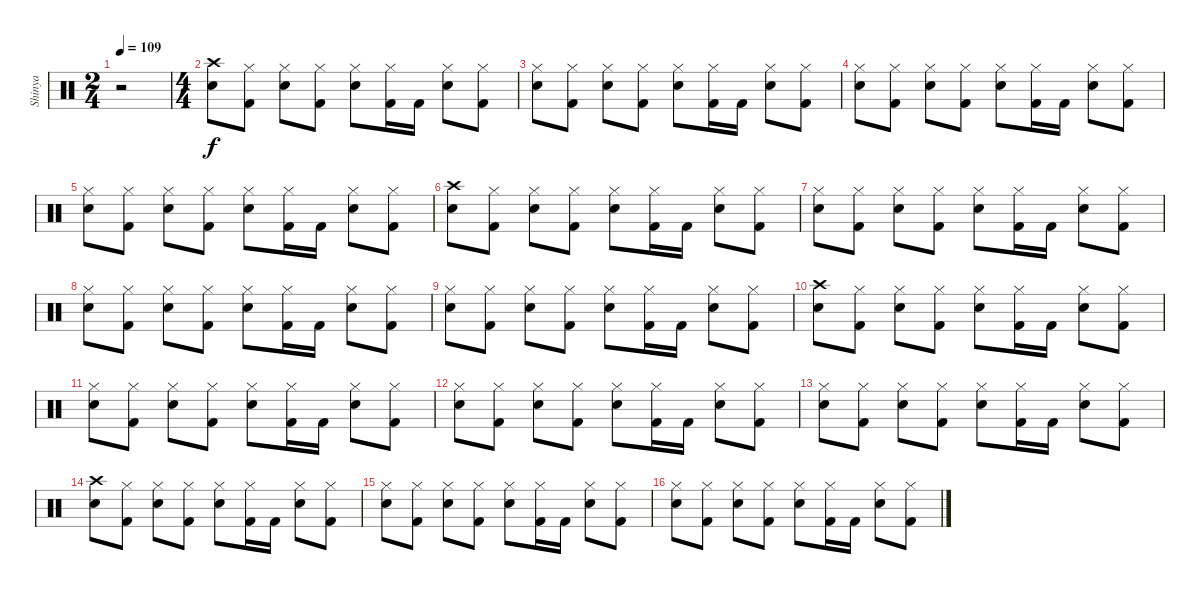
\track ("Shinya" "Shinya") {instrument percussion}
\staff {score}
\articulation defaults
\ts (2 4)
\tempo 109
\clef neutral
\ks c
r.2{dy f} |
\ts (4 4)
("Crash high (hit)" "Snare (hit) 2").8 ("Hi-Hat (closed)" "Kick (hit) 2").8 ("Hi-Hat (closed)" "Snare (hit) 2").8 ("Hi-Hat (closed)" "Kick (hit) 2").8 ("Hi-Hat (closed)" "Snare (hit) 2").8 ("Hi-Hat (closed)" "Kick (hit) 2").16 "Kick (hit) 2".16 ("Hi-Hat (closed)" "Snare (hit) 2").8 ("Hi-Hat (closed)" "Kick (hit) 2").8 |
("Hi-Hat (closed)" "Snare (hit) 2").8 ("Hi-Hat (closed)" "Kick (hit) 2").8 ("Hi-Hat (closed)" "Snare (hit) 2").8 ("Hi-Hat (closed)" "Kick (hit) 2").8 ("Hi-Hat (closed)" "Snare (hit) 2").8 ("Hi-Hat (closed)" "Kick (hit) 2").16 "Kick (hit) 2".16 ("Hi-Hat (closed)" "Snare (hit) 2").8 ("Hi-Hat (closed)" "Kick (hit) 2").8 |
("Hi-Hat (closed)" "Snare (hit) 2").8 ("Hi-Hat (closed)" "Kick (hit) 2").8 ("Hi-Hat (closed)" "Snare (hit) 2").8 ("Hi-Hat (closed)" "Kick (hit) 2").8 ("Hi-Hat (closed)" "Snare (hit) 2").8 ("Hi-Hat (closed)" "Kick (hit) 2").16 "Kick (hit) 2".16 ("Hi-Hat (closed)" "Snare (hit) 2").8 ("Hi-Hat (closed)" "Kick (hit) 2").8 |
("Hi-Hat (closed)" "Snare (hit) 2").8 ("Hi-Hat (closed)" "Kick (hit) 2").8 ("Hi-Hat (closed)" "Snare (hit) 2").8 ("Hi-Hat (closed)" "Kick (hit) 2").8 ("Hi-Hat (closed)" "Snare (hit) 2").8 ("Hi-Hat (closed)" "Kick (hit) 2").16 "Kick (hit) 2".16 ("Hi-Hat (closed)" "Snare (hit) 2").8 ("Hi-Hat (closed)" "Kick (hit) 2").8 |
("Crash high (hit)" "Snare (hit) 2").8 ("Hi-Hat (closed)" "Kick (hit) 2").8 ("Hi-Hat (closed)" "Snare (hit) 2").8 ("Hi-Hat (closed)" "Kick (hit) 2").8 ("Hi-Hat (closed)" "Snare (hit) 2").8 ("Hi-Hat (closed)" "Kick (hit) 2").16 "Kick (hit) 2".16 ("Hi-Hat (closed)" "Snare (hit) 2").8 ("Hi-Hat (closed)" "Kick (hit) 2").8 |
("Hi-Hat (closed)" "Snare (hit) 2").8 ("Hi-Hat (closed)" "Kick (hit) 2").8 ("Hi-Hat (closed)" "Snare (hit) 2").8 ("Hi-Hat (closed)" "Kick (hit) 2").8 ("Hi-Hat (closed)" "Snare (hit) 2").8 ("Hi-Hat (closed)" "Kick (hit) 2").16 "Kick (hit) 2".16 ("Hi-Hat (closed)" "Snare (hit) 2").8 ("Hi-Hat (closed)" "Kick (hit) 2").8 |
("Hi-Hat (closed)" "Snare (hit) 2").8 ("Hi-Hat (closed)" "Kick (hit) 2").8 ("Hi-Hat (closed)" "Snare (hit) 2").8 ("Hi-Hat (closed)" "Kick (hit) 2").8 ("Hi-Hat (closed)" "Snare (hit) 2").8 ("Hi-Hat (closed)" "Kick (hit) 2").16 "Kick (hit) 2".16 ("Hi-Hat (closed)" "Snare (hit) 2").8 ("Hi-Hat (closed)" "Kick (hit) 2").8 |
("Hi-Hat (closed)" "Snare (hit) 2").8 ("Hi-Hat (closed)" "Kick (hit) 2").8 ("Hi-Hat (closed)" "Snare (hit) 2").8 ("Hi-Hat (closed)" "Kick (hit) 2").8 ("Hi-Hat (closed)" "Snare (hit) 2").8 ("Hi-Hat (closed)" "Kick (hit) 2").16 "Kick (hit) 2".16 ("Hi-Hat (closed)" "Snare (hit) 2").8 ("Hi-Hat (closed)" "Kick (hit) 2").8 |
("Crash high (hit)" "Snare (hit) 2").8 ("Hi-Hat (closed)" "Kick (hit) 2").8 ("Hi-Hat (closed)" "Snare (hit) 2").8 ("Hi-Hat (closed)" "Kick (hit) 2").8 ("Hi-Hat (closed)" "Snare (hit) 2").8 ("Hi-Hat (closed)" "Kick (hit) 2").16 "Kick (hit) 2".16 ("Hi-Hat (closed)" "Snare (hit) 2").8 ("Hi-Hat (closed)" "Kick (hit) 2").8 |
("Hi-Hat (closed)" "Snare (hit) 2").8 ("Hi-Hat (closed)" "Kick (hit) 2").8 ("Hi-Hat (closed)" "Snare (hit) 2").8 ("Hi-Hat (closed)" "Kick (hit) 2").8 ("Hi-Hat (closed)" "Snare (hit) 2").8 ("Hi-Hat (closed)" "Kick (hit) 2").16 "Kick (hit) 2".16 ("Hi-Hat (closed)" "Snare (hit) 2").8 ("Hi-Hat (closed)" "Kick (hit) 2").8 |
("Hi-Hat (closed)" "Snare (hit) 2").8 ("Hi-Hat (closed)" "Kick (hit) 2").8 ("Hi-Hat (closed)" "Snare (hit) 2").8 ("Hi-Hat (closed)" "Kick (hit) 2").8 ("Hi-Hat (closed)" "Snare (hit) 2").8 ("Hi-Hat (closed)" "Kick (hit) 2").16 "Kick (hit) 2".16 ("Hi-Hat (closed)" "Snare (hit) 2").8 ("Hi-Hat (closed)" "Kick (hit) 2").8 |
("Hi-Hat (closed)" "Snare (hit) 2").8 ("Hi-Hat (closed)" "Kick (hit) 2").8 ("Hi-Hat (closed)" "Snare (hit) 2").8 ("Hi-Hat (closed)" "Kick (hit) 2").8 ("Hi-Hat (closed)" "Snare (hit) 2").8 ("Hi-Hat (closed)" "Kick (hit) 2").16 "Kick (hit) 2".16 ("Hi-Hat (closed)" "Snare (hit) 2").8 ("Hi-Hat (closed)" "Kick (hit) 2").8 |
("Crash high (hit)" "Snare (hit) 2").8 ("Hi-Hat (closed)" "Kick (hit) 2").8 ("Hi-Hat (closed)" "Snare (hit) 2").8 ("Hi-Hat (closed)" "Kick (hit) 2").8 ("Hi-Hat (closed)" "Snare (hit) 2").8 ("Hi-Hat (closed)" "Kick (hit) 2").16 "Kick (hit) 2".16 ("Hi-Hat (closed)" "Snare (hit) 2").8 ("Hi-Hat (closed)" "Kick (hit) 2").8 |
("Hi-Hat (closed)" "Snare (hit) 2").8 ("Hi-Hat (closed)" "Kick (hit) 2").8 ("Hi-Hat (closed)" "Snare (hit) 2").8 ("Hi-Hat (closed)" "Kick (hit) 2").8 ("Hi-Hat (closed)" "Snare (hit) 2").8 ("Hi-Hat (closed)" "Kick (hit) 2").16 "Kick (hit) 2".16 ("Hi-Hat (closed)" "Snare (hit) 2").8 ("Hi-Hat (closed)" "Kick (hit) 2").8 |
("Hi-Hat (closed)" "Snare (hit) 2").8 ("Hi-Hat (closed)" "Kick (hit) 2").8 ("Hi-Hat (closed)" "Snare (hit) 2").8 ("Hi-Hat (closed)" "Kick (hit) 2").8 ("Hi-Hat (closed)" "Snare (hit) 2").8 ("Hi-Hat (closed)" "Kick (hit) 2").16 "Kick (hit) 2".16 ("Hi-Hat (closed)" "Snare (hit) 2").8 ("Hi-Hat (closed)" "Kick (hit) 2").8
